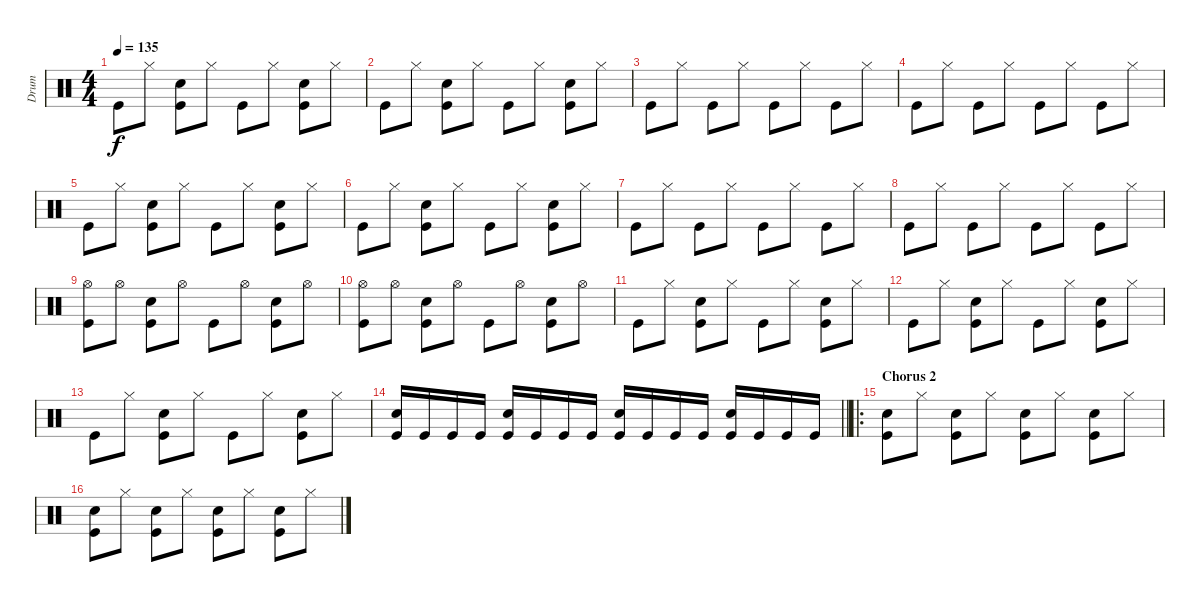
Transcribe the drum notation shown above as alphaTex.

\track ("Drum" "Drum") {instrument percussion}
\staff {score}
\articulation defaults
\ts (4 4)
\tempo 135
\clef neutral
\ks c "Kick (hit)".8{dy f} "Hi-Hat (closed)".8
("Snare (hit) 2" "Kick (hit)").8 "Hi-Hat (closed)".8 "Kick (hit)".8 "Hi-Hat (closed)".8 ("Snare (hit) 2" "Kick (hit)").8 "Hi-Hat (closed)".8 |
"Kick (hit)".8 "Hi-Hat (closed)".8 ("Snare (hit) 2" "Kick (hit)").8 "Hi-Hat (closed)".8 "Kick (hit)".8 "Hi-Hat (closed)".8 ("Snare (hit) 2" "Kick (hit)").8 "Hi-Hat (closed)".8 |
"Kick (hit)".8 "Hi-Hat (closed)".8 "Kick (hit)".8 "Hi-Hat (closed)".8 "Kick (hit)".8 "Hi-Hat (closed)".8 "Kick (hit)".8 "Hi-Hat (closed)".8 |
"Kick (hit)".8 "Hi-Hat (closed)".8 "Kick (hit)".8 "Hi-Hat (closed)".8 "Kick (hit)".8 "Hi-Hat (closed)".8 "Kick (hit)".8 "Hi-Hat (closed)".8 |
"Kick (hit)".8 "Hi-Hat (closed)".8 ("Snare (hit) 2" "Kick (hit)").8 "Hi-Hat (closed)".8 "Kick (hit)".8 "Hi-Hat (closed)".8 ("Snare (hit) 2" "Kick (hit)").8 "Hi-Hat (closed)".8 |
"Kick (hit)".8 "Hi-Hat (closed)".8 ("Snare (hit) 2" "Kick (hit)").8 "Hi-Hat (closed)".8 "Kick (hit)".8 "Hi-Hat (closed)".8 ("Snare (hit) 2" "Kick (hit)").8 "Hi-Hat (closed)".8 |
"Kick (hit)".8 "Hi-Hat (closed)".8 "Kick (hit)".8 "Hi-Hat (closed)".8 "Kick (hit)".8 "Hi-Hat (closed)".8 "Kick (hit)".8 "Hi-Hat (closed)".8 |
"Kick (hit)".8 "Hi-Hat (closed)".8 "Kick (hit)".8 "Hi-Hat (closed)".8 "Kick (hit)".8 "Hi-Hat (closed)".8 "Kick (hit)".8 "Hi-Hat (closed)".8 |
("Hi-Hat (open)" "Kick (hit)").8 "Hi-Hat (open)".8 ("Snare (hit) 2" "Kick (hit)").8 "Hi-Hat (open)".8 "Kick (hit)".8 "Hi-Hat (open)".8 ("Snare (hit) 2" "Kick (hit)").8 "Hi-Hat (open)".8 |
("Hi-Hat (open)" "Kick (hit)").8 "Hi-Hat (open)".8 ("Snare (hit) 2" "Kick (hit)").8 "Hi-Hat (open)".8 "Kick (hit)".8 "Hi-Hat (open)".8 ("Snare (hit) 2" "Kick (hit)").8 "Hi-Hat (open)".8 |
"Kick (hit)".8 "Hi-Hat (closed)".8 ("Snare (hit) 2" "Kick (hit)").8 "Hi-Hat (closed)".8 "Kick (hit)".8 "Hi-Hat (closed)".8 ("Snare (hit) 2" "Kick (hit)").8 "Hi-Hat (closed)".8 |
"Kick (hit)".8 "Hi-Hat (closed)".8 ("Snare (hit) 2" "Kick (hit)").8 "Hi-Hat (closed)".8 "Kick (hit)".8 "Hi-Hat (closed)".8 ("Snare (hit) 2" "Kick (hit)").8 "Hi-Hat (closed)".8 |
"Kick (hit)".8 "Hi-Hat (closed)".8 ("Snare (hit) 2" "Kick (hit)").8 "Hi-Hat (closed)".8 "Kick (hit)".8 "Hi-Hat (closed)".8 ("Snare (hit) 2" "Kick (hit)").8 "Hi-Hat (closed)".8 |
\barLineRight lightlight
("Snare (hit) 2" "Kick (hit)").16 "Kick (hit)".16 "Kick (hit)".16 "Kick (hit)".16 ("Snare (hit) 2" "Kick (hit)").16 "Kick (hit)".16 "Kick (hit)".16 "Kick (hit)".16 ("Snare (hit) 2" "Kick (hit)").16 "Kick (hit)".16 "Kick (hit)".16 "Kick (hit)".16 ("Snare (hit) 2" "Kick (hit)").16 "Kick (hit)".16 "Kick (hit)".16 "Kick (hit)".16 |
\ro
\section ("" "Chorus 2")
("Snare (hit) 2" "Kick (hit)").8 "Hi-Hat (closed)".8 ("Snare (hit) 2" "Kick (hit)").8 "Hi-Hat (closed)".8 ("Snare (hit) 2" "Kick (hit)").8 "Hi-Hat (closed)".8 ("Snare (hit) 2" "Kick (hit)").8 "Hi-Hat (closed)".8 |
("Snare (hit) 2" "Kick (hit)").8 "Hi-Hat (closed)".8 ("Snare (hit) 2" "Kick (hit)").8 "Hi-Hat (closed)".8 ("Snare (hit) 2" "Kick (hit)").8 "Hi-Hat (closed)".8 ("Snare (hit) 2" "Kick (hit)").8 "Hi-Hat (closed)".8
